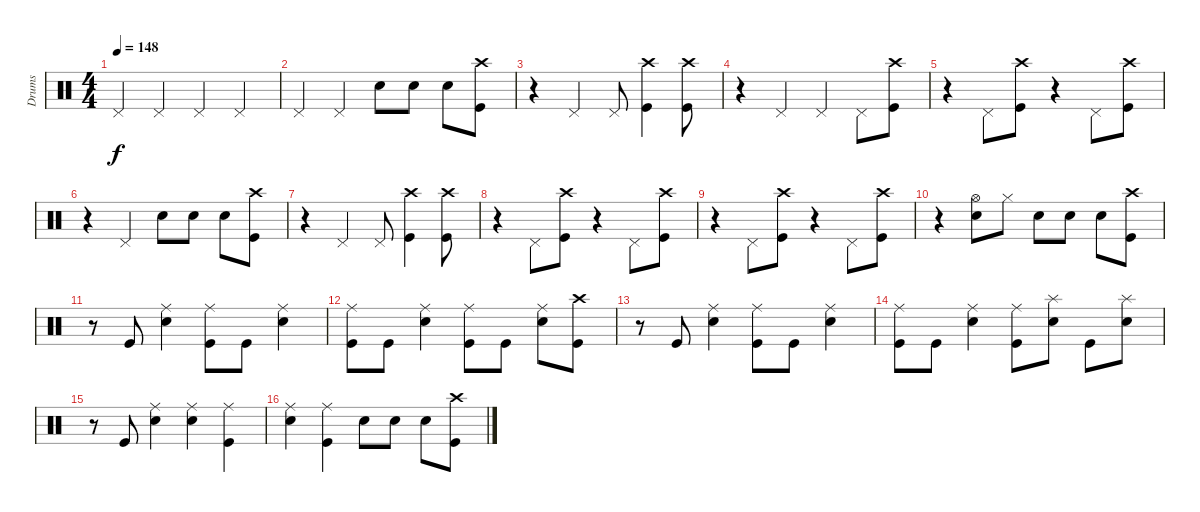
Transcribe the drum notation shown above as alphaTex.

\track ("Drums" "Drums") {instrument percussion}
\staff {score}
\articulation defaults
\ts (4 4)
\tempo 148
\clef neutral
\ks c "Pedal Hi-Hat (hit)".4{dy f} "Pedal Hi-Hat (hit)".4 "Pedal Hi-Hat (hit)".4 "Pedal Hi-Hat (hit)".4
|
"Pedal Hi-Hat (hit)".4 "Pedal Hi-Hat (hit)".4 "Snare (hit) 2".8 "Snare (hit) 2".8 "Snare (hit) 2".8 ("Crash high (hit)" "Kick (hit)").8 |
r.4 "Pedal Hi-Hat (hit)".4 "Pedal Hi-Hat (hit)".8 ("Crash high (hit)" "Kick (hit)").4 ("Crash high (hit)" "Kick (hit)").8 |
r.4 "Pedal Hi-Hat (hit)".4 "Pedal Hi-Hat (hit)".4 "Pedal Hi-Hat (hit)".8 ("Crash high (hit)" "Kick (hit)").8 |
r.4 "Pedal Hi-Hat (hit)".8 ("Crash high (hit)" "Kick (hit)").8 r.4 "Pedal Hi-Hat (hit)".8 ("Crash high (hit)" "Kick (hit)").8 |
r.4 "Pedal Hi-Hat (hit)".4 "Snare (hit) 2".8 "Snare (hit) 2".8 "Snare (hit) 2".8 ("Crash high (hit)" "Kick (hit)").8 |
r.4 "Pedal Hi-Hat (hit)".4 "Pedal Hi-Hat (hit)".8 ("Crash high (hit)" "Kick (hit)").4 ("Crash high (hit)" "Kick (hit)").8 |
r.4 "Pedal Hi-Hat (hit)".8 ("Crash high (hit)" "Kick (hit)").8 r.4 "Pedal Hi-Hat (hit)".8 ("Crash high (hit)" "Kick (hit)").8 |
r.4 "Pedal Hi-Hat (hit)".8 ("Crash high (hit)" "Kick (hit)").8 r.4 "Pedal Hi-Hat (hit)".8 ("Crash high (hit)" "Kick (hit)").8 |
r.4 ("Hi-Hat (open)" "Snare (hit) 2").8 "Hi-Hat (closed)".8 "Snare (hit) 2".8 "Snare (hit) 2".8 "Snare (hit) 2".8 ("Crash high (hit)" "Kick (hit)").8 |
r.8 "Kick (hit)".8 ("Ride (middle)" "Snare (hit) 2").4 ("Ride (middle)" "Kick (hit)").8 "Kick (hit)".8 ("Ride (middle)" "Snare (hit) 2").4 |
("Ride (middle)" "Kick (hit)").8 "Kick (hit)".8 ("Ride (middle)" "Snare (hit) 2").4 ("Ride (middle)" "Kick (hit)").8 "Kick (hit)".8 ("Ride (middle)" "Snare (hit) 2").8 ("Crash high (hit)" "Kick (hit)").8 |
r.8 "Kick (hit)".8 ("Ride (middle)" "Snare (hit) 2").4 ("Ride (middle)" "Kick (hit)").8 "Kick (hit)".8 ("Ride (middle)" "Snare (hit) 2").4 |
("Ride (middle)" "Kick (hit)").8 "Kick (hit)".8 ("Ride (middle)" "Snare (hit) 2").4 ("Ride (middle)" "Kick (hit)").8 ("Splash (hit)" "Snare (hit) 2").8 "Kick (hit)".8 ("Splash (hit)" "Snare (hit) 2").8 |
r.8 "Kick (hit)".8 ("Ride (middle)" "Snare (hit) 2").4 ("Ride (middle)" "Snare (hit) 2").4 ("Ride (middle)" "Kick (hit)").4 |
("Ride (middle)" "Snare (hit) 2").4 ("Ride (middle)" "Kick (hit)").4 "Snare (hit) 2".8 "Snare (hit) 2".8 "Snare (hit) 2".8 ("Crash high (hit)" "Kick (hit)").8
